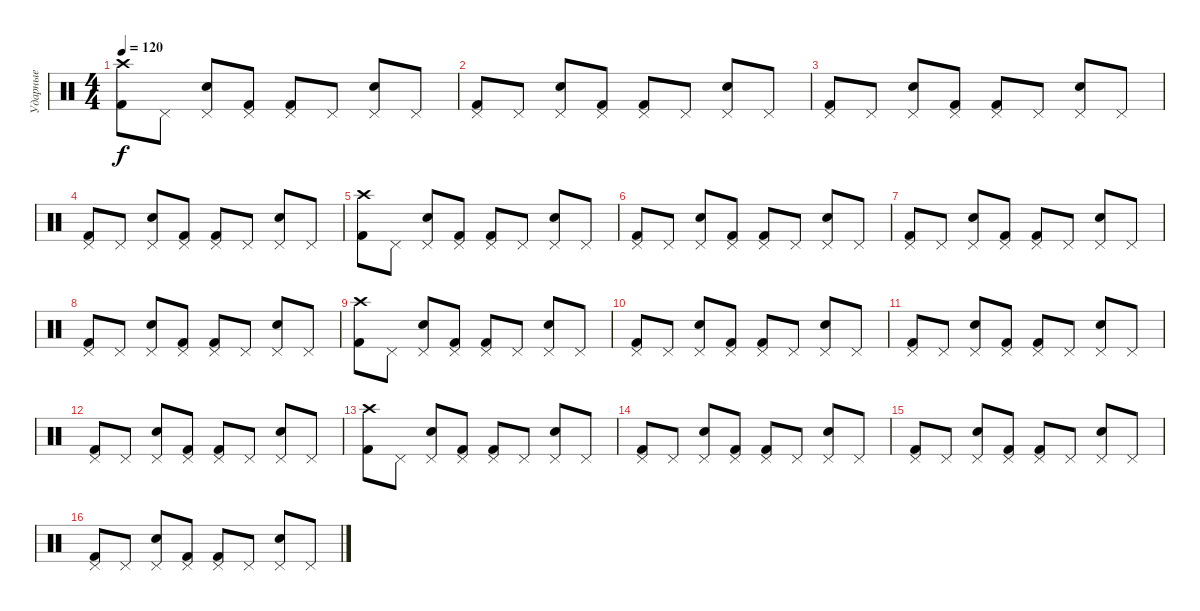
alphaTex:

\track ("Ударные" "Ударные") {instrument percussion}
\staff {score}
\articulation defaults
\ts (4 4)
\tempo 120
\clef neutral
\ks c
("Crash high (hit)" "Kick (hit) 2").8{dy f} "Pedal Hi-Hat (hit)".8 ("Pedal Hi-Hat (hit)" "Snare (hit) 2").8 ("Pedal Hi-Hat (hit)" "Kick (hit) 2").8 ("Pedal Hi-Hat (hit)" "Kick (hit) 2").8 "Pedal Hi-Hat (hit)".8 ("Pedal Hi-Hat (hit)" "Snare (hit) 2").8 "Pedal Hi-Hat (hit)".8 |
("Pedal Hi-Hat (hit)" "Kick (hit) 2").8 "Pedal Hi-Hat (hit)".8 ("Pedal Hi-Hat (hit)" "Snare (hit) 2").8 ("Pedal Hi-Hat (hit)" "Kick (hit) 2").8 ("Pedal Hi-Hat (hit)" "Kick (hit) 2").8 "Pedal Hi-Hat (hit)".8 ("Pedal Hi-Hat (hit)" "Snare (hit) 2").8 "Pedal Hi-Hat (hit)".8 |
("Pedal Hi-Hat (hit)" "Kick (hit) 2").8 "Pedal Hi-Hat (hit)".8 ("Pedal Hi-Hat (hit)" "Snare (hit) 2").8 ("Pedal Hi-Hat (hit)" "Kick (hit) 2").8 ("Pedal Hi-Hat (hit)" "Kick (hit) 2").8 "Pedal Hi-Hat (hit)".8 ("Pedal Hi-Hat (hit)" "Snare (hit) 2").8 "Pedal Hi-Hat (hit)".8 |
("Pedal Hi-Hat (hit)" "Kick (hit) 2").8 "Pedal Hi-Hat (hit)".8 ("Pedal Hi-Hat (hit)" "Snare (hit) 2").8 ("Pedal Hi-Hat (hit)" "Kick (hit) 2").8 ("Pedal Hi-Hat (hit)" "Kick (hit) 2").8 "Pedal Hi-Hat (hit)".8 ("Pedal Hi-Hat (hit)" "Snare (hit) 2").8 "Pedal Hi-Hat (hit)".8 |
("Crash high (hit)" "Kick (hit) 2").8 "Pedal Hi-Hat (hit)".8 ("Pedal Hi-Hat (hit)" "Snare (hit) 2").8 ("Pedal Hi-Hat (hit)" "Kick (hit) 2").8 ("Pedal Hi-Hat (hit)" "Kick (hit) 2").8 "Pedal Hi-Hat (hit)".8 ("Pedal Hi-Hat (hit)" "Snare (hit) 2").8 "Pedal Hi-Hat (hit)".8 |
("Pedal Hi-Hat (hit)" "Kick (hit) 2").8 "Pedal Hi-Hat (hit)".8 ("Pedal Hi-Hat (hit)" "Snare (hit) 2").8 ("Pedal Hi-Hat (hit)" "Kick (hit) 2").8 ("Pedal Hi-Hat (hit)" "Kick (hit) 2").8 "Pedal Hi-Hat (hit)".8 ("Pedal Hi-Hat (hit)" "Snare (hit) 2").8 "Pedal Hi-Hat (hit)".8 |
("Pedal Hi-Hat (hit)" "Kick (hit) 2").8 "Pedal Hi-Hat (hit)".8 ("Pedal Hi-Hat (hit)" "Snare (hit) 2").8 ("Pedal Hi-Hat (hit)" "Kick (hit) 2").8 ("Pedal Hi-Hat (hit)" "Kick (hit) 2").8 "Pedal Hi-Hat (hit)".8 ("Pedal Hi-Hat (hit)" "Snare (hit) 2").8 "Pedal Hi-Hat (hit)".8 |
("Pedal Hi-Hat (hit)" "Kick (hit) 2").8 "Pedal Hi-Hat (hit)".8 ("Pedal Hi-Hat (hit)" "Snare (hit) 2").8 ("Pedal Hi-Hat (hit)" "Kick (hit) 2").8 ("Pedal Hi-Hat (hit)" "Kick (hit) 2").8 "Pedal Hi-Hat (hit)".8 ("Pedal Hi-Hat (hit)" "Snare (hit) 2").8 "Pedal Hi-Hat (hit)".8 |
("Crash high (hit)" "Kick (hit) 2").8 "Pedal Hi-Hat (hit)".8 ("Pedal Hi-Hat (hit)" "Snare (hit) 2").8 ("Pedal Hi-Hat (hit)" "Kick (hit) 2").8 ("Pedal Hi-Hat (hit)" "Kick (hit) 2").8 "Pedal Hi-Hat (hit)".8 ("Pedal Hi-Hat (hit)" "Snare (hit) 2").8 "Pedal Hi-Hat (hit)".8 |
("Pedal Hi-Hat (hit)" "Kick (hit) 2").8 "Pedal Hi-Hat (hit)".8 ("Pedal Hi-Hat (hit)" "Snare (hit) 2").8 ("Pedal Hi-Hat (hit)" "Kick (hit) 2").8 ("Pedal Hi-Hat (hit)" "Kick (hit) 2").8 "Pedal Hi-Hat (hit)".8 ("Pedal Hi-Hat (hit)" "Snare (hit) 2").8 "Pedal Hi-Hat (hit)".8 |
("Pedal Hi-Hat (hit)" "Kick (hit) 2").8 "Pedal Hi-Hat (hit)".8 ("Pedal Hi-Hat (hit)" "Snare (hit) 2").8 ("Pedal Hi-Hat (hit)" "Kick (hit) 2").8 ("Pedal Hi-Hat (hit)" "Kick (hit) 2").8 "Pedal Hi-Hat (hit)".8 ("Pedal Hi-Hat (hit)" "Snare (hit) 2").8 "Pedal Hi-Hat (hit)".8 |
("Pedal Hi-Hat (hit)" "Kick (hit) 2").8 "Pedal Hi-Hat (hit)".8 ("Pedal Hi-Hat (hit)" "Snare (hit) 2").8 ("Pedal Hi-Hat (hit)" "Kick (hit) 2").8 ("Pedal Hi-Hat (hit)" "Kick (hit) 2").8 "Pedal Hi-Hat (hit)".8 ("Pedal Hi-Hat (hit)" "Snare (hit) 2").8 "Pedal Hi-Hat (hit)".8 |
("Crash high (hit)" "Kick (hit) 2").8 "Pedal Hi-Hat (hit)".8 ("Pedal Hi-Hat (hit)" "Snare (hit) 2").8 ("Pedal Hi-Hat (hit)" "Kick (hit) 2").8 ("Pedal Hi-Hat (hit)" "Kick (hit) 2").8 "Pedal Hi-Hat (hit)".8 ("Pedal Hi-Hat (hit)" "Snare (hit) 2").8 "Pedal Hi-Hat (hit)".8 |
("Pedal Hi-Hat (hit)" "Kick (hit) 2").8 "Pedal Hi-Hat (hit)".8 ("Pedal Hi-Hat (hit)" "Snare (hit) 2").8 ("Pedal Hi-Hat (hit)" "Kick (hit) 2").8 ("Pedal Hi-Hat (hit)" "Kick (hit) 2").8 "Pedal Hi-Hat (hit)".8 ("Pedal Hi-Hat (hit)" "Snare (hit) 2").8 "Pedal Hi-Hat (hit)".8 |
("Pedal Hi-Hat (hit)" "Kick (hit) 2").8 "Pedal Hi-Hat (hit)".8 ("Pedal Hi-Hat (hit)" "Snare (hit) 2").8 ("Pedal Hi-Hat (hit)" "Kick (hit) 2").8 ("Pedal Hi-Hat (hit)" "Kick (hit) 2").8 "Pedal Hi-Hat (hit)".8 ("Pedal Hi-Hat (hit)" "Snare (hit) 2").8 "Pedal Hi-Hat (hit)".8 |
("Pedal Hi-Hat (hit)" "Kick (hit) 2").8 "Pedal Hi-Hat (hit)".8 ("Pedal Hi-Hat (hit)" "Snare (hit) 2").8 ("Pedal Hi-Hat (hit)" "Kick (hit) 2").8 ("Pedal Hi-Hat (hit)" "Kick (hit) 2").8 "Pedal Hi-Hat (hit)".8 ("Pedal Hi-Hat (hit)" "Snare (hit) 2").8 "Pedal Hi-Hat (hit)".8
